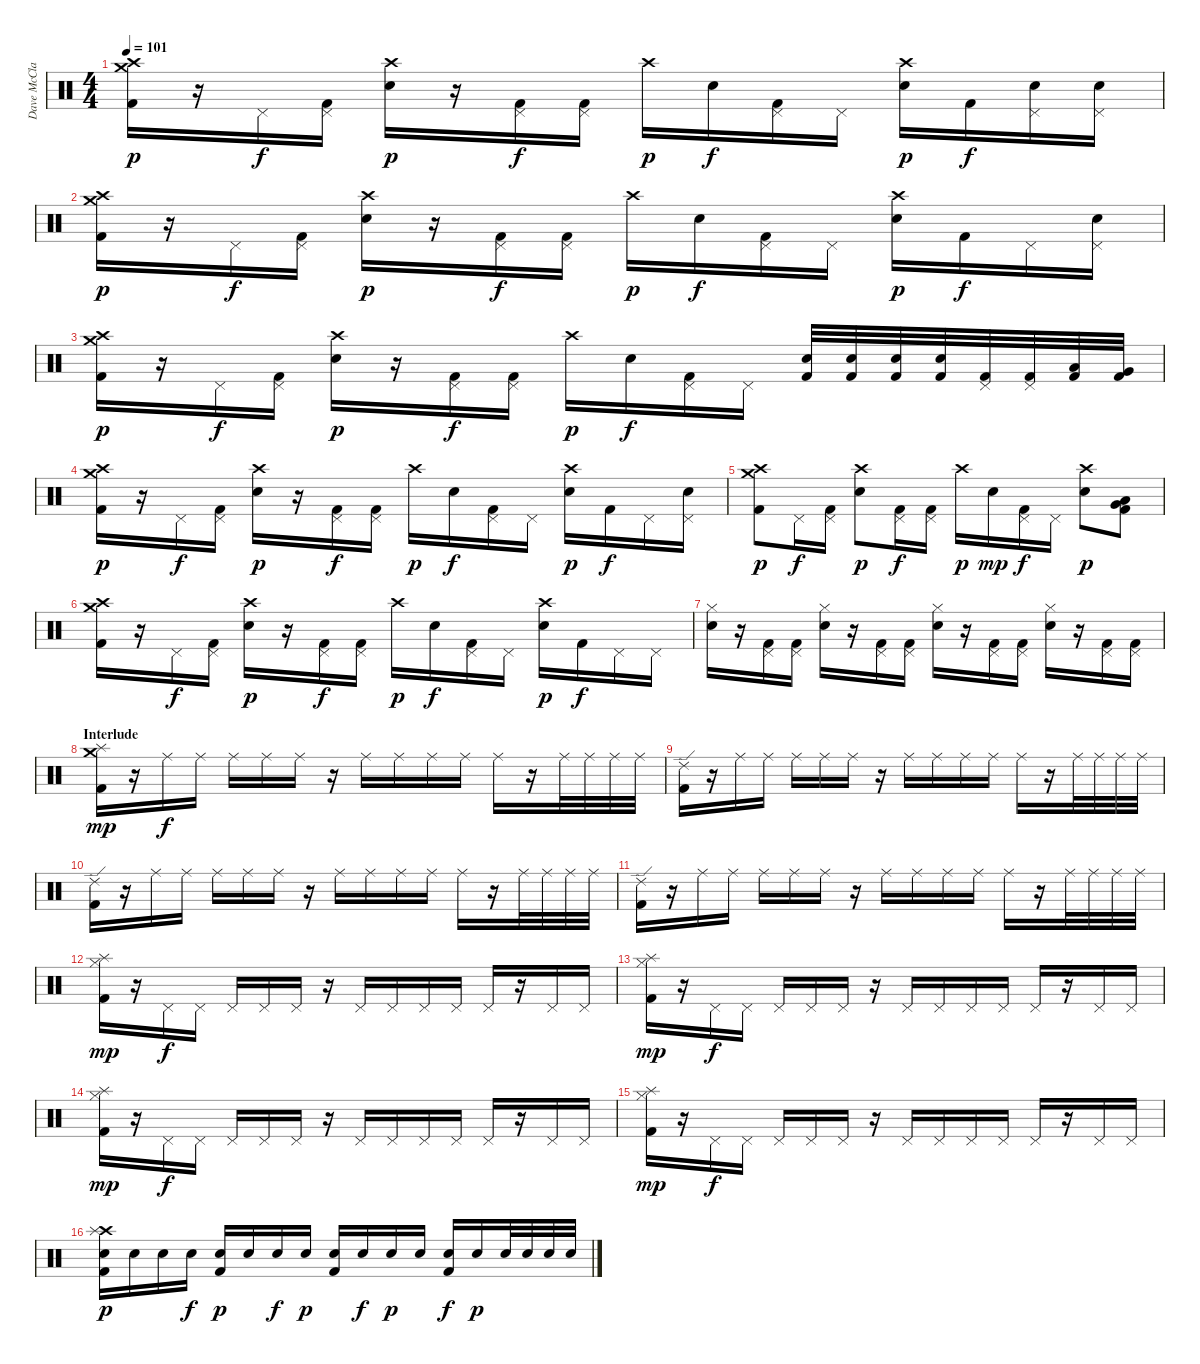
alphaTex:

\track ("Dave McClain" "Dave McCla") {instrument percussion}
\staff {score}
\articulation defaults
\ts (4 4)
\tempo 101
\clef neutral
\ks c
("Crash medium (hit)" "Crash high (hit)" "Kick (hit) 2").16{dy p} r.16 "Pedal Hi-Hat (hit)".16{dy f} ("Pedal Hi-Hat (hit)" "Kick (hit) 2").16 ("Crash high (hit)" "Electric Snare (hit)").16{dy p} r.16 ("Pedal Hi-Hat (hit)" "Kick (hit) 2").16{dy f} ("Pedal Hi-Hat (hit)" "Kick (hit) 2").16 "Crash high (hit)".16{dy p} "Electric Snare (hit)".16{dy f} ("Pedal Hi-Hat (hit)" "Kick (hit) 2").16 "Pedal Hi-Hat (hit)".16 ("Crash high (hit)" "Electric Snare (hit)").16{dy p} "Kick (hit) 2".16{dy f} ("Pedal Hi-Hat (hit)" "Electric Snare (hit)").16 ("Pedal Hi-Hat (hit)" "Electric Snare (hit)").16 |
("Crash medium (hit)" "Crash high (hit)" "Kick (hit) 2").16{dy p} r.16 "Pedal Hi-Hat (hit)".16{dy f} ("Pedal Hi-Hat (hit)" "Kick (hit) 2").16 ("Crash high (hit)" "Electric Snare (hit)").16{dy p} r.16 ("Pedal Hi-Hat (hit)" "Kick (hit) 2").16{dy f} ("Pedal Hi-Hat (hit)" "Kick (hit) 2").16 "Crash high (hit)".16{dy p} "Electric Snare (hit)".16{dy f} ("Pedal Hi-Hat (hit)" "Kick (hit) 2").16 "Pedal Hi-Hat (hit)".16 ("Crash high (hit)" "Electric Snare (hit)").16{dy p} "Kick (hit) 2".16{dy f} "Pedal Hi-Hat (hit)".16 ("Pedal Hi-Hat (hit)" "Electric Snare (hit)").16 |
("Crash medium (hit)" "Crash high (hit)" "Kick (hit) 2").16{dy p} r.16 "Pedal Hi-Hat (hit)".16{dy f} ("Pedal Hi-Hat (hit)" "Kick (hit) 2").16 ("Crash high (hit)" "Electric Snare (hit)").16{dy p} r.16 ("Pedal Hi-Hat (hit)" "Kick (hit) 2").16{dy f} ("Pedal Hi-Hat (hit)" "Kick (hit) 2").16 "Crash high (hit)".16{dy p} "Electric Snare (hit)".16{dy f} ("Pedal Hi-Hat (hit)" "Kick (hit) 2").16 "Pedal Hi-Hat (hit)".16 ("Electric Snare (hit)" "Kick (hit) 2").32 ("Electric Snare (hit)" "Kick (hit) 2").32 ("Electric Snare (hit)" "Kick (hit) 2").32 ("Electric Snare (hit)" "Kick (hit) 2").32 ("Pedal Hi-Hat (hit)" "Kick (hit) 2").32 ("Pedal Hi-Hat (hit)" "Kick (hit) 2").32 ("Low Tom (hit)" "Kick (hit) 2").32 ("Very Low Tom (hit)" "Kick (hit) 2").32 |
("Crash medium (hit)" "Crash high (hit)" "Kick (hit) 2").16{dy p} r.16 "Pedal Hi-Hat (hit)".16{dy f} ("Pedal Hi-Hat (hit)" "Kick (hit) 2").16 ("Crash high (hit)" "Electric Snare (hit)").16{dy p} r.16 ("Pedal Hi-Hat (hit)" "Kick (hit) 2").16{dy f} ("Pedal Hi-Hat (hit)" "Kick (hit) 2").16 "Crash high (hit)".16{dy p} "Electric Snare (hit)".16{dy f} ("Pedal Hi-Hat (hit)" "Kick (hit) 2").16 "Pedal Hi-Hat (hit)".16 ("Crash high (hit)" "Electric Snare (hit)").16{dy p} "Kick (hit) 2".16{dy f} "Pedal Hi-Hat (hit)".16 ("Pedal Hi-Hat (hit)" "Electric Snare (hit)").16 |
("Crash medium (hit)" "Crash high (hit)" "Kick (hit) 2").8{dy p} "Pedal Hi-Hat (hit)".16{dy f} ("Pedal Hi-Hat (hit)" "Kick (hit) 2").16 ("Crash high (hit)" "Electric Snare (hit)").8{dy p} ("Pedal Hi-Hat (hit)" "Kick (hit) 2").16{dy f} ("Pedal Hi-Hat (hit)" "Kick (hit) 2").16 "Crash high (hit)".16{dy p} "Electric Snare (hit)".16{dy mp} ("Pedal Hi-Hat (hit)" "Kick (hit) 2").16{dy f} "Pedal Hi-Hat (hit)".16 ("Crash high (hit)" "Electric Snare (hit)").8{dy p} ("Very Low Tom (hit)" "Low Tom (hit)" "Kick (hit) 2").8 |
("Crash medium (hit)" "Crash high (hit)" "Kick (hit) 2").16 r.16 "Pedal Hi-Hat (hit)".16{dy f} ("Pedal Hi-Hat (hit)" "Kick (hit) 2").16 ("Crash high (hit)" "Electric Snare (hit)").16{dy p} r.16 ("Pedal Hi-Hat (hit)" "Kick (hit) 2").16{dy f} ("Pedal Hi-Hat (hit)" "Kick (hit) 2").16 "Crash high (hit)".16{dy p} "Electric Snare (hit)".16{dy f} ("Pedal Hi-Hat (hit)" "Kick (hit) 2").16 "Pedal Hi-Hat (hit)".16 ("Crash high (hit)" "Electric Snare (hit)").16{dy p} "Kick (hit) 2".16{dy f} "Pedal Hi-Hat (hit)".16 "Pedal Hi-Hat (hit)".16 |
("Hi-Hat (closed)" "Electric Snare (hit)").16 r.16 ("Pedal Hi-Hat (hit)" "Kick (hit) 2").16 ("Pedal Hi-Hat (hit)" "Kick (hit) 2").16 ("Hi-Hat (closed)" "Electric Snare (hit)").16 r.16 ("Pedal Hi-Hat (hit)" "Kick (hit) 2").16 ("Pedal Hi-Hat (hit)" "Kick (hit) 2").16 ("Hi-Hat (closed)" "Electric Snare (hit)").16 r.16 ("Pedal Hi-Hat (hit)" "Kick (hit) 2").16 ("Pedal Hi-Hat (hit)" "Kick (hit) 2").16 ("Hi-Hat (closed)" "Electric Snare (hit)").16 r.16 ("Pedal Hi-Hat (hit)" "Kick (hit) 2").16 ("Pedal Hi-Hat (hit)" "Kick (hit) 2").16 |
\section ("" "Interlude")
("Crash medium (hit)" "Splash (hit)" "Kick (hit) 2").16{dy mp} r.16 "Ride (middle)".16{dy f} "Ride (middle)".16 "Ride (middle)".16 "Ride (middle)".16 "Ride (middle)".16 r.16 "Ride (middle)".16 "Ride (middle)".16 "Ride (middle)".16 "Ride (middle)".16 "Ride (middle)".16 r.16 "Ride (middle)".32 "Ride (middle)".32 "Ride (middle)".32 "Ride (middle)".32 |
("Ride (edge) 2" "Kick (hit) 2").16 r.16 "Ride (middle)".16 "Ride (middle)".16 "Ride (middle)".16 "Ride (middle)".16 "Ride (middle)".16 r.16 "Ride (middle)".16 "Ride (middle)".16 "Ride (middle)".16 "Ride (middle)".16 "Ride (middle)".16 r.16 "Ride (middle)".32 "Ride (middle)".32 "Ride (middle)".32 "Ride (middle)".32 |
("Ride (edge) 2" "Kick (hit) 2").16 r.16 "Ride (middle)".16 "Ride (middle)".16 "Ride (middle)".16 "Ride (middle)".16 "Ride (middle)".16 r.16 "Ride (middle)".16 "Ride (middle)".16 "Ride (middle)".16 "Ride (middle)".16 "Ride (middle)".16 r.16 "Ride (middle)".32 "Ride (middle)".32 "Ride (middle)".32 "Ride (middle)".32 |
("Ride (edge) 2" "Kick (hit) 2").16 r.16 "Ride (middle)".16 "Ride (middle)".16 "Ride (middle)".16 "Ride (middle)".16 "Ride (middle)".16 r.16 "Ride (middle)".16 "Ride (middle)".16 "Ride (middle)".16 "Ride (middle)".16 "Ride (middle)".16 r.16 "Ride (middle)".32 "Ride (middle)".32 "Ride (middle)".32 "Ride (middle)".32 |
("Splash (hit)" "Hi-Hat (closed)" "Kick (hit) 2").16{dy mp} r.16 "Pedal Hi-Hat (hit)".16{dy f} "Pedal Hi-Hat (hit)".16 "Pedal Hi-Hat (hit)".16 "Pedal Hi-Hat (hit)".16 "Pedal Hi-Hat (hit)".16 r.16 "Pedal Hi-Hat (hit)".16 "Pedal Hi-Hat (hit)".16 "Pedal Hi-Hat (hit)".16 "Pedal Hi-Hat (hit)".16 "Pedal Hi-Hat (hit)".16 r.16 "Pedal Hi-Hat (hit)".16 "Pedal Hi-Hat (hit)".16 |
("Splash (hit)" "Hi-Hat (closed)" "Kick (hit) 2").16{dy mp} r.16 "Pedal Hi-Hat (hit)".16{dy f} "Pedal Hi-Hat (hit)".16 "Pedal Hi-Hat (hit)".16 "Pedal Hi-Hat (hit)".16 "Pedal Hi-Hat (hit)".16 r.16 "Pedal Hi-Hat (hit)".16 "Pedal Hi-Hat (hit)".16 "Pedal Hi-Hat (hit)".16 "Pedal Hi-Hat (hit)".16 "Pedal Hi-Hat (hit)".16 r.16 "Pedal Hi-Hat (hit)".16 "Pedal Hi-Hat (hit)".16 |
("Splash (hit)" "Hi-Hat (closed)" "Kick (hit) 2").16{dy mp} r.16 "Pedal Hi-Hat (hit)".16{dy f} "Pedal Hi-Hat (hit)".16 "Pedal Hi-Hat (hit)".16 "Pedal Hi-Hat (hit)".16 "Pedal Hi-Hat (hit)".16 r.16 "Pedal Hi-Hat (hit)".16 "Pedal Hi-Hat (hit)".16 "Pedal Hi-Hat (hit)".16 "Pedal Hi-Hat (hit)".16 "Pedal Hi-Hat (hit)".16 r.16 "Pedal Hi-Hat (hit)".16 "Pedal Hi-Hat (hit)".16 |
("Splash (hit)" "Hi-Hat (closed)" "Kick (hit) 2").16{dy mp} r.16 "Pedal Hi-Hat (hit)".16{dy f} "Pedal Hi-Hat (hit)".16 "Pedal Hi-Hat (hit)".16 "Pedal Hi-Hat (hit)".16 "Pedal Hi-Hat (hit)".16 r.16 "Pedal Hi-Hat (hit)".16 "Pedal Hi-Hat (hit)".16 "Pedal Hi-Hat (hit)".16 "Pedal Hi-Hat (hit)".16 "Pedal Hi-Hat (hit)".16 r.16 "Pedal Hi-Hat (hit)".16 "Pedal Hi-Hat (hit)".16 |
("Crash high (hit)" "Splash (hit)" "Electric Snare (hit)" "Kick (hit) 2").16{dy p} "Electric Snare (hit)".16 "Electric Snare (hit)".16 "Electric Snare (hit)".16{dy f} ("Electric Snare (hit)" "Kick (hit) 2").16{dy p} "Electric Snare (hit)".16 "Electric Snare (hit)".16{dy f} "Electric Snare (hit)".16{dy p} ("Electric Snare (hit)" "Kick (hit) 2").16 "Electric Snare (hit)".16{dy f} "Electric Snare (hit)".16{dy p} "Electric Snare (hit)".16 ("Electric Snare (hit)" "Kick (hit) 2").16{dy f} "Electric Snare (hit)".16{dy p} "Electric Snare (hit)".32 "Electric Snare (hit)".32 "Electric Snare (hit)".32 "Electric Snare (hit)".32
